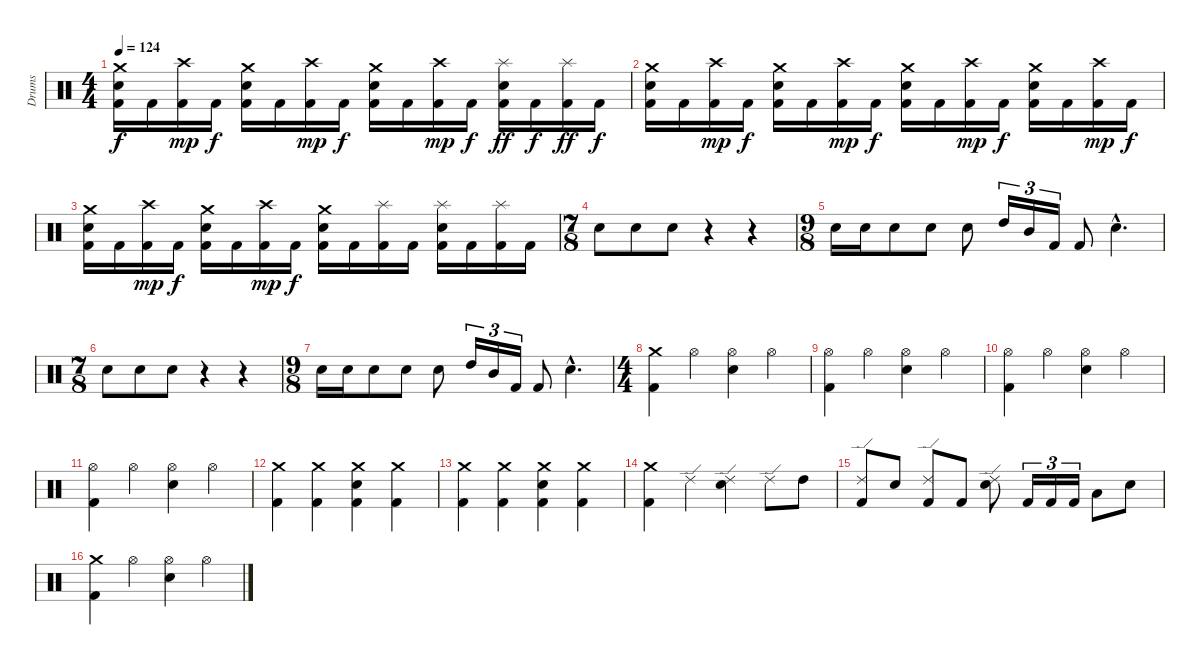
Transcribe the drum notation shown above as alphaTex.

\track ("Drums" "Drums") {instrument percussion}
\staff {score}
\articulation defaults
\ts (4 4)
\tempo 124
\clef neutral
\ks c
("Crash medium (hit)" "Electric Snare (hit)" "Kick (hit) 2").16{dy f} "Kick (hit) 2".16 ("Crash high (hit)" "Kick (hit) 2").16{dy mp} "Kick (hit) 2".16{dy f} ("Crash medium (hit)" "Electric Snare (hit)" "Kick (hit) 2").16 "Kick (hit) 2".16 ("Crash high (hit)" "Kick (hit) 2").16{dy mp} "Kick (hit) 2".16{dy f} ("Crash medium (hit)" "Electric Snare (hit)" "Kick (hit) 2").16 "Kick (hit) 2".16 ("Crash high (hit)" "Kick (hit) 2").16{dy mp} "Kick (hit) 2".16{dy f} ("Splash (hit)" "Electric Snare (hit)" "Kick (hit) 2").16{dy ff} "Kick (hit) 2".16{dy f} ("Splash (hit)" "Kick (hit) 2").16{dy ff} "Kick (hit) 2".16{dy f} |
("Crash medium (hit)" "Electric Snare (hit)" "Kick (hit) 2").16 "Kick (hit) 2".16 ("Crash high (hit)" "Kick (hit) 2").16{dy mp} "Kick (hit) 2".16{dy f} ("Crash medium (hit)" "Electric Snare (hit)" "Kick (hit) 2").16 "Kick (hit) 2".16 ("Crash high (hit)" "Kick (hit) 2").16{dy mp} "Kick (hit) 2".16{dy f} ("Crash medium (hit)" "Electric Snare (hit)" "Kick (hit) 2").16 "Kick (hit) 2".16 ("Crash high (hit)" "Kick (hit) 2").16{dy mp} "Kick (hit) 2".16{dy f} ("Crash medium (hit)" "Electric Snare (hit)" "Kick (hit) 2").16 "Kick (hit) 2".16 ("Crash high (hit)" "Kick (hit) 2").16{dy mp} "Kick (hit) 2".16{dy f} |
("Crash medium (hit)" "Electric Snare (hit)" "Kick (hit) 2").16 "Kick (hit) 2".16 ("Crash high (hit)" "Kick (hit) 2").16{dy mp} "Kick (hit) 2".16{dy f} ("Crash medium (hit)" "Electric Snare (hit)" "Kick (hit) 2").16 "Kick (hit) 2".16 ("Crash high (hit)" "Kick (hit) 2").16{dy mp} "Kick (hit) 2".16{dy f} ("Crash medium (hit)" "Electric Snare (hit)" "Kick (hit) 2").16 "Kick (hit) 2".16 ("Splash (hit)" "Kick (hit) 2").16 "Kick (hit) 2".16 ("Splash (hit)" "Electric Snare (hit)" "Kick (hit) 2").16 "Kick (hit) 2".16 ("Splash (hit)" "Kick (hit) 2").16 "Kick (hit) 2".16 |
\ts (7 8)
"Electric Snare (hit)".8 "Electric Snare (hit)".8 "Electric Snare (hit)".8 r.4 r.4 |
\ts (9 8)
"Electric Snare (hit)".16 "Electric Snare (hit)".16 "Electric Snare (hit)".8 "Electric Snare (hit)".8 "Electric Snare (hit)".8 "High Tom (hit)".16{tu (3 2)} "Mid Tom (hit)".16{tu (3 2)} "Kick (hit) 2".16{tu (3 2)} "Kick (hit) 2".8 "Electric Snare (hit)"{hac}.4{d} |
\ts (7 8)
"Electric Snare (hit)".8 "Electric Snare (hit)".8 "Electric Snare (hit)".8 r.4 r.4 |
\ts (9 8)
"Electric Snare (hit)".16 "Electric Snare (hit)".16 "Electric Snare (hit)".8 "Electric Snare (hit)".8 "Electric Snare (hit)".8 "High Tom (hit)".16{tu (3 2)} "Mid Tom (hit)".16{tu (3 2)} "Kick (hit) 2".16{tu (3 2)} "Kick (hit) 2".8 "Electric Snare (hit)"{hac}.4{d} |
\ts (4 4)
("Crash medium (hit)" "Kick (hit) 2").4 "Hi-Hat (open)".4 ("Hi-Hat (open)" "Electric Snare (hit)").4 "Hi-Hat (open)".4 |
("Hi-Hat (open)" "Kick (hit) 2").4 "Hi-Hat (open)".4 ("Hi-Hat (open)" "Electric Snare (hit)").4 "Hi-Hat (open)".4 |
("Hi-Hat (open)" "Kick (hit) 2").4 "Hi-Hat (open)".4 ("Hi-Hat (open)" "Electric Snare (hit)").4 "Hi-Hat (open)".4 |
("Hi-Hat (open)" "Kick (hit) 2").4 "Hi-Hat (open)".4 ("Hi-Hat (open)" "Electric Snare (hit)").4 "Hi-Hat (open)".4 |
("Crash medium (hit)" "Kick (hit) 2").4 ("Crash medium (hit)" "Kick (hit) 2").4 ("Crash medium (hit)" "Electric Snare (hit)" "Kick (hit) 2").4 ("Crash medium (hit)" "Kick (hit) 2").4 |
("Crash medium (hit)" "Kick (hit) 2").4 ("Crash medium (hit)" "Kick (hit) 2").4 ("Crash medium (hit)" "Electric Snare (hit)" "Kick (hit) 2").4 ("Crash medium (hit)" "Kick (hit) 2").4 |
("Crash medium (hit)" "Kick (hit) 2").4 "Ride (edge) 2".4 ("Ride (edge) 2" "Electric Snare (hit)").4 "Ride (edge) 2".8 "High Tom (hit)".8 |
("Ride (edge) 2" "Kick (hit) 2").8 "Electric Snare (hit)".8 ("Ride (edge) 2" "Kick (hit) 2").8 "Kick (hit) 2".8 ("Ride (edge) 2" "Electric Snare (hit)").8 "Kick (hit) 2".16{tu (3 2)} "Kick (hit) 2".16{tu (3 2)} "Kick (hit) 2".16{tu (3 2)} "Low Tom (hit)".8 "Electric Snare (hit)".8 |
("Crash medium (hit)" "Kick (hit) 2").4 "Hi-Hat (open)".4 ("Hi-Hat (open)" "Electric Snare (hit)").4 "Hi-Hat (open)".4
